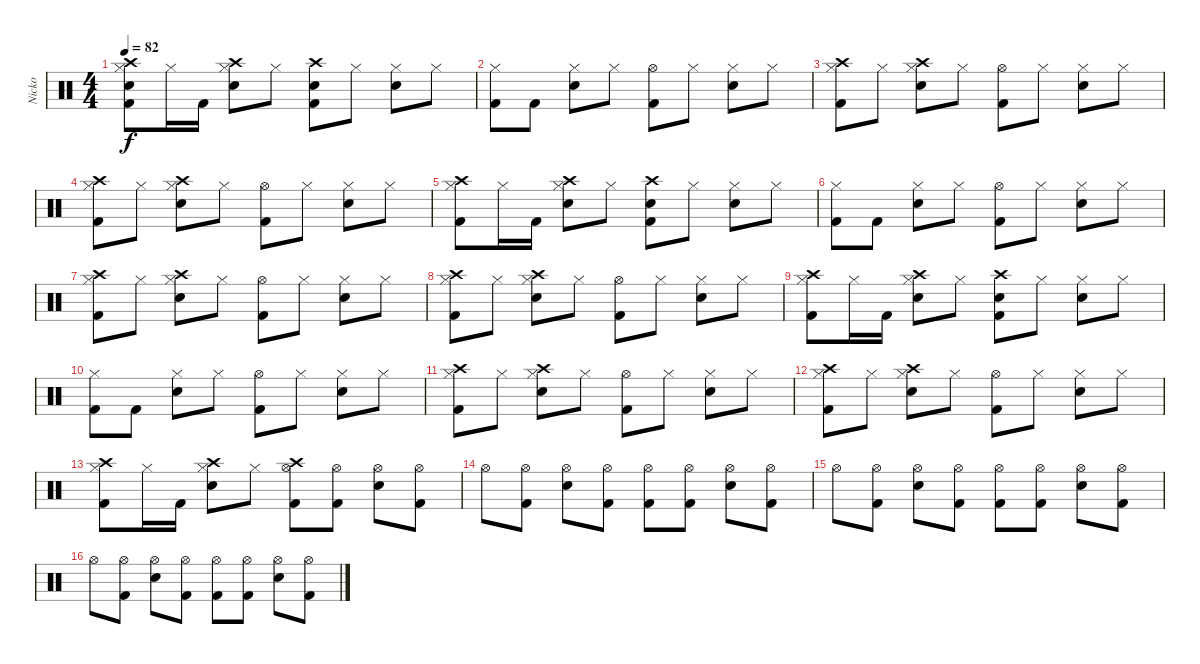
\track ("Nicko" "Nicko") {instrument percussion}
\staff {score}
\articulation defaults
\ts (4 4)
\tempo 82
\clef neutral
\ks c
("Snare (hit) 2" "Kick (hit) 2" "Hi-Hat (closed)" "Crash high (hit)").8{dy f} "Hi-Hat (closed)".16 "Kick (hit) 2".16 ("Snare (hit) 2" "Hi-Hat (closed)" "Crash high (hit)").8 "Hi-Hat (closed)".8 ("Kick (hit) 2" "Snare (hit) 2" "Crash high (hit)").8 "Hi-Hat (closed)".8 ("Snare (hit) 2" "Hi-Hat (closed)").8 "Hi-Hat (closed)".8 |
("Kick (hit) 2" "Hi-Hat (closed)").8 "Kick (hit) 2".8 ("Snare (hit) 2" "Hi-Hat (closed)").8 "Hi-Hat (closed)".8 ("Kick (hit) 2" "Hi-Hat (open)").8 "Hi-Hat (closed)".8 ("Snare (hit) 2" "Hi-Hat (closed)").8 "Hi-Hat (closed)".8 |
("Kick (hit) 2" "Hi-Hat (closed)" "Crash high (hit)").8 "Hi-Hat (closed)".8 ("Snare (hit) 2" "Hi-Hat (closed)" "Crash high (hit)").8 "Hi-Hat (closed)".8 ("Kick (hit) 2" "Hi-Hat (open)").8 "Hi-Hat (closed)".8 ("Snare (hit) 2" "Hi-Hat (closed)").8 "Hi-Hat (closed)".8 |
("Kick (hit) 2" "Hi-Hat (closed)" "Crash high (hit)").8 "Hi-Hat (closed)".8 ("Snare (hit) 2" "Hi-Hat (closed)" "Crash high (hit)").8 "Hi-Hat (closed)".8 ("Kick (hit) 2" "Hi-Hat (open)").8 "Hi-Hat (closed)".8 ("Snare (hit) 2" "Hi-Hat (closed)").8 "Hi-Hat (closed)".8 |
("Kick (hit) 2" "Hi-Hat (closed)" "Crash high (hit)").8 "Hi-Hat (closed)".16 "Kick (hit) 2".16 ("Snare (hit) 2" "Hi-Hat (closed)" "Crash high (hit)").8 "Hi-Hat (closed)".8 ("Kick (hit) 2" "Snare (hit) 2" "Crash high (hit)").8 "Hi-Hat (closed)".8 ("Snare (hit) 2" "Hi-Hat (closed)").8 "Hi-Hat (closed)".8 |
("Kick (hit) 2" "Hi-Hat (closed)").8 "Kick (hit) 2".8 ("Snare (hit) 2" "Hi-Hat (closed)").8 "Hi-Hat (closed)".8 ("Kick (hit) 2" "Hi-Hat (open)").8 "Hi-Hat (closed)".8 ("Snare (hit) 2" "Hi-Hat (closed)").8 "Hi-Hat (closed)".8 |
("Kick (hit) 2" "Hi-Hat (closed)" "Crash high (hit)").8 "Hi-Hat (closed)".8 ("Snare (hit) 2" "Hi-Hat (closed)" "Crash high (hit)").8 "Hi-Hat (closed)".8 ("Kick (hit) 2" "Hi-Hat (open)").8 "Hi-Hat (closed)".8 ("Snare (hit) 2" "Hi-Hat (closed)").8 "Hi-Hat (closed)".8 |
("Kick (hit) 2" "Hi-Hat (closed)" "Crash high (hit)").8 "Hi-Hat (closed)".8 ("Snare (hit) 2" "Hi-Hat (closed)" "Crash high (hit)").8 "Hi-Hat (closed)".8 ("Kick (hit) 2" "Hi-Hat (open)").8 "Hi-Hat (closed)".8 ("Snare (hit) 2" "Hi-Hat (closed)").8 "Hi-Hat (closed)".8 |
("Kick (hit) 2" "Hi-Hat (closed)" "Crash high (hit)").8 "Hi-Hat (closed)".16 "Kick (hit) 2".16 ("Snare (hit) 2" "Hi-Hat (closed)" "Crash high (hit)").8 "Hi-Hat (closed)".8 ("Kick (hit) 2" "Snare (hit) 2" "Crash high (hit)").8 "Hi-Hat (closed)".8 ("Snare (hit) 2" "Hi-Hat (closed)").8 "Hi-Hat (closed)".8 |
("Kick (hit) 2" "Hi-Hat (closed)").8 "Kick (hit) 2".8 ("Snare (hit) 2" "Hi-Hat (closed)").8 "Hi-Hat (closed)".8 ("Kick (hit) 2" "Hi-Hat (open)").8 "Hi-Hat (closed)".8 ("Snare (hit) 2" "Hi-Hat (closed)").8 "Hi-Hat (closed)".8 |
("Kick (hit) 2" "Hi-Hat (closed)" "Crash high (hit)").8 "Hi-Hat (closed)".8 ("Snare (hit) 2" "Hi-Hat (closed)" "Crash high (hit)").8 "Hi-Hat (closed)".8 ("Kick (hit) 2" "Hi-Hat (open)").8 "Hi-Hat (closed)".8 ("Snare (hit) 2" "Hi-Hat (closed)").8 "Hi-Hat (closed)".8 |
("Kick (hit) 2" "Hi-Hat (closed)" "Crash high (hit)").8 "Hi-Hat (closed)".8 ("Snare (hit) 2" "Hi-Hat (closed)" "Crash high (hit)").8 "Hi-Hat (closed)".8 ("Kick (hit) 2" "Hi-Hat (open)").8 "Hi-Hat (closed)".8 ("Snare (hit) 2" "Hi-Hat (closed)").8 "Hi-Hat (closed)".8 |
("Kick (hit) 2" "Hi-Hat (closed)" "Crash high (hit)").8 "Hi-Hat (closed)".16 "Kick (hit) 2".16 ("Snare (hit) 2" "Hi-Hat (closed)" "Crash high (hit)").8 "Hi-Hat (closed)".8 ("Kick (hit) 2" "Hi-Hat (open)" "Crash high (hit)").8 ("Kick (hit) 2" "Hi-Hat (open)").8 ("Snare (hit) 2" "Hi-Hat (open)").8 ("Kick (hit) 2" "Hi-Hat (open)").8 |
"Hi-Hat (open)".8 ("Kick (hit) 2" "Hi-Hat (open)").8 ("Snare (hit) 2" "Hi-Hat (open)").8 ("Kick (hit) 2" "Hi-Hat (open)").8 ("Kick (hit) 2" "Hi-Hat (open)").8 ("Kick (hit) 2" "Hi-Hat (open)").8 ("Snare (hit) 2" "Hi-Hat (open)").8 ("Kick (hit) 2" "Hi-Hat (open)").8 |
"Hi-Hat (open)".8 ("Kick (hit) 2" "Hi-Hat (open)").8 ("Snare (hit) 2" "Hi-Hat (open)").8 ("Kick (hit) 2" "Hi-Hat (open)").8 ("Kick (hit) 2" "Hi-Hat (open)").8 ("Kick (hit) 2" "Hi-Hat (open)").8 ("Snare (hit) 2" "Hi-Hat (open)").8 ("Kick (hit) 2" "Hi-Hat (open)").8 |
"Hi-Hat (open)".8 ("Kick (hit) 2" "Hi-Hat (open)").8 ("Snare (hit) 2" "Hi-Hat (open)").8 ("Kick (hit) 2" "Hi-Hat (open)").8 ("Kick (hit) 2" "Hi-Hat (open)").8 ("Kick (hit) 2" "Hi-Hat (open)").8 ("Snare (hit) 2" "Hi-Hat (open)").8 ("Kick (hit) 2" "Hi-Hat (open)").8
